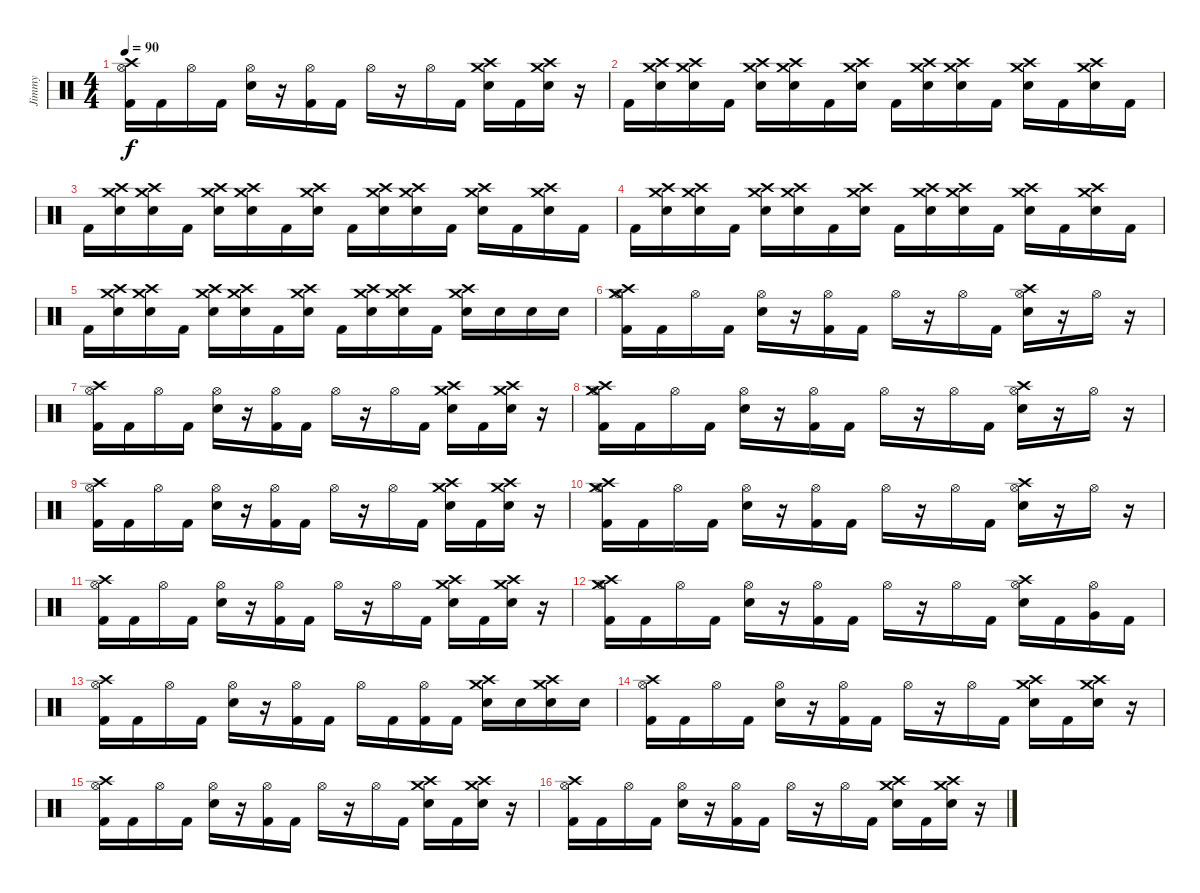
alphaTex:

\track ("Jimmy" "Jimmy") {instrument percussion}
\staff {score}
\articulation defaults
\ts (4 4)
\tempo 90
\clef neutral
\ks c
("Kick (hit) 2" "Hi-Hat (open)" "Crash high (hit)").16{dy f} "Kick (hit) 2".16 "Hi-Hat (open)".16 "Kick (hit) 2".16 ("Electric Snare (hit)" "Hi-Hat (open)").16 r.16 ("Kick (hit) 2" "Hi-Hat (open)").16 "Kick (hit) 2".16 "Hi-Hat (open)".16 r.16 "Hi-Hat (open)".16 "Kick (hit) 2".16 ("Electric Snare (hit)" "Crash high (hit)" "Crash medium (hit)").16 "Kick (hit) 2".16 ("Electric Snare (hit)" "Crash high (hit)" "Crash medium (hit)").16 r.16 |
"Kick (hit) 2".16 ("Electric Snare (hit)" "Crash high (hit)" "Crash medium (hit)").16 ("Electric Snare (hit)" "Crash high (hit)" "Crash medium (hit)").16 "Kick (hit) 2".16 ("Electric Snare (hit)" "Crash high (hit)" "Crash medium (hit)").16 ("Electric Snare (hit)" "Crash high (hit)" "Crash medium (hit)").16 "Kick (hit) 2".16 ("Electric Snare (hit)" "Crash high (hit)" "Crash medium (hit)").16 "Kick (hit) 2".16 ("Electric Snare (hit)" "Crash high (hit)" "Crash medium (hit)").16 ("Electric Snare (hit)" "Crash high (hit)" "Crash medium (hit)").16 "Kick (hit) 2".16 ("Electric Snare (hit)" "Crash high (hit)" "Crash medium (hit)").16 "Kick (hit) 2".16 ("Electric Snare (hit)" "Crash high (hit)" "Crash medium (hit)").16 "Kick (hit) 2".16 |
"Kick (hit) 2".16 ("Electric Snare (hit)" "Crash high (hit)" "Crash medium (hit)").16 ("Electric Snare (hit)" "Crash high (hit)" "Crash medium (hit)").16 "Kick (hit) 2".16 ("Electric Snare (hit)" "Crash high (hit)" "Crash medium (hit)").16 ("Electric Snare (hit)" "Crash high (hit)" "Crash medium (hit)").16 "Kick (hit) 2".16 ("Electric Snare (hit)" "Crash high (hit)" "Crash medium (hit)").16 "Kick (hit) 2".16 ("Electric Snare (hit)" "Crash high (hit)" "Crash medium (hit)").16 ("Electric Snare (hit)" "Crash high (hit)" "Crash medium (hit)").16 "Kick (hit) 2".16 ("Electric Snare (hit)" "Crash high (hit)" "Crash medium (hit)").16 "Kick (hit) 2".16 ("Electric Snare (hit)" "Crash high (hit)" "Crash medium (hit)").16 "Kick (hit) 2".16 |
"Kick (hit) 2".16 ("Electric Snare (hit)" "Crash high (hit)" "Crash medium (hit)").16 ("Electric Snare (hit)" "Crash high (hit)" "Crash medium (hit)").16 "Kick (hit) 2".16 ("Electric Snare (hit)" "Crash high (hit)" "Crash medium (hit)").16 ("Electric Snare (hit)" "Crash high (hit)" "Crash medium (hit)").16 "Kick (hit) 2".16 ("Electric Snare (hit)" "Crash high (hit)" "Crash medium (hit)").16 "Kick (hit) 2".16 ("Electric Snare (hit)" "Crash high (hit)" "Crash medium (hit)").16 ("Electric Snare (hit)" "Crash high (hit)" "Crash medium (hit)").16 "Kick (hit) 2".16 ("Electric Snare (hit)" "Crash high (hit)" "Crash medium (hit)").16 "Kick (hit) 2".16 ("Electric Snare (hit)" "Crash high (hit)" "Crash medium (hit)").16 "Kick (hit) 2".16 |
"Kick (hit) 2".16 ("Electric Snare (hit)" "Crash high (hit)" "Crash medium (hit)").16 ("Electric Snare (hit)" "Crash high (hit)" "Crash medium (hit)").16 "Kick (hit) 2".16 ("Electric Snare (hit)" "Crash high (hit)" "Crash medium (hit)").16 ("Electric Snare (hit)" "Crash high (hit)" "Crash medium (hit)").16 "Kick (hit) 2".16 ("Electric Snare (hit)" "Crash high (hit)" "Crash medium (hit)").16 "Kick (hit) 2".16 ("Electric Snare (hit)" "Crash high (hit)" "Crash medium (hit)").16 ("Electric Snare (hit)" "Crash high (hit)" "Crash medium (hit)").16 "Kick (hit) 2".16 ("Electric Snare (hit)" "Crash high (hit)" "Crash medium (hit)").16 "Electric Snare (hit)".16 "Electric Snare (hit)".16 "Electric Snare (hit)".16 |
("Kick (hit) 2" "Hi-Hat (open)" "Crash high (hit)" "Crash medium (hit)").16 "Kick (hit) 2".16 "Hi-Hat (open)".16 "Kick (hit) 2".16 ("Electric Snare (hit)" "Hi-Hat (open)").16 r.16 ("Kick (hit) 2" "Hi-Hat (open)").16 "Kick (hit) 2".16 "Hi-Hat (open)".16 r.16 "Hi-Hat (open)".16 "Kick (hit) 2".16 ("Electric Snare (hit)" "Hi-Hat (open)" "Crash high (hit)").16 r.16 "Hi-Hat (open)".16 r.16 |
("Kick (hit) 2" "Hi-Hat (open)" "Crash high (hit)").16 "Kick (hit) 2".16 "Hi-Hat (open)".16 "Kick (hit) 2".16 ("Electric Snare (hit)" "Hi-Hat (open)").16 r.16 ("Kick (hit) 2" "Hi-Hat (open)").16 "Kick (hit) 2".16 "Hi-Hat (open)".16 r.16 "Hi-Hat (open)".16 "Kick (hit) 2".16 ("Electric Snare (hit)" "Crash high (hit)" "Crash medium (hit)").16 "Kick (hit) 2".16 ("Electric Snare (hit)" "Crash high (hit)" "Crash medium (hit)").16 r.16 |
("Kick (hit) 2" "Hi-Hat (open)" "Crash high (hit)" "Crash medium (hit)").16 "Kick (hit) 2".16 "Hi-Hat (open)".16 "Kick (hit) 2".16 ("Electric Snare (hit)" "Hi-Hat (open)").16 r.16 ("Kick (hit) 2" "Hi-Hat (open)").16 "Kick (hit) 2".16 "Hi-Hat (open)".16 r.16 "Hi-Hat (open)".16 "Kick (hit) 2".16 ("Electric Snare (hit)" "Hi-Hat (open)" "Crash high (hit)").16 r.16 "Hi-Hat (open)".16 r.16 |
("Kick (hit) 2" "Hi-Hat (open)" "Crash high (hit)").16 "Kick (hit) 2".16 "Hi-Hat (open)".16 "Kick (hit) 2".16 ("Electric Snare (hit)" "Hi-Hat (open)").16 r.16 ("Kick (hit) 2" "Hi-Hat (open)").16 "Kick (hit) 2".16 "Hi-Hat (open)".16 r.16 "Hi-Hat (open)".16 "Kick (hit) 2".16 ("Electric Snare (hit)" "Crash high (hit)" "Crash medium (hit)").16 "Kick (hit) 2".16 ("Electric Snare (hit)" "Crash high (hit)" "Crash medium (hit)").16 r.16 |
("Kick (hit) 2" "Hi-Hat (open)" "Crash high (hit)" "Crash medium (hit)").16 "Kick (hit) 2".16 "Hi-Hat (open)".16 "Kick (hit) 2".16 ("Electric Snare (hit)" "Hi-Hat (open)").16 r.16 ("Kick (hit) 2" "Hi-Hat (open)").16 "Kick (hit) 2".16 "Hi-Hat (open)".16 r.16 "Hi-Hat (open)".16 "Kick (hit) 2".16 ("Electric Snare (hit)" "Hi-Hat (open)" "Crash high (hit)").16 r.16 "Hi-Hat (open)".16 r.16 |
("Kick (hit) 2" "Hi-Hat (open)" "Crash high (hit)").16 "Kick (hit) 2".16 "Hi-Hat (open)".16 "Kick (hit) 2".16 ("Electric Snare (hit)" "Hi-Hat (open)").16 r.16 ("Kick (hit) 2" "Hi-Hat (open)").16 "Kick (hit) 2".16 "Hi-Hat (open)".16 r.16 "Hi-Hat (open)".16 "Kick (hit) 2".16 ("Electric Snare (hit)" "Crash high (hit)" "Crash medium (hit)").16 "Kick (hit) 2".16 ("Electric Snare (hit)" "Crash high (hit)" "Crash medium (hit)").16 r.16 |
("Kick (hit) 2" "Hi-Hat (open)" "Crash high (hit)" "Crash medium (hit)").16 "Kick (hit) 2".16 "Hi-Hat (open)".16 "Kick (hit) 2".16 ("Electric Snare (hit)" "Hi-Hat (open)").16 r.16 ("Kick (hit) 2" "Hi-Hat (open)").16 "Kick (hit) 2".16 "Hi-Hat (open)".16 r.16 "Hi-Hat (open)".16 "Kick (hit) 2".16 ("Electric Snare (hit)" "Hi-Hat (open)" "Crash high (hit)").16 "Kick (hit) 2".16 ("Very Low Tom (hit)" "Hi-Hat (open)").16 "Kick (hit) 2".16 |
("Kick (hit) 2" "Hi-Hat (open)" "Crash high (hit)").16 "Kick (hit) 2".16 "Hi-Hat (open)".16 "Kick (hit) 2".16 ("Electric Snare (hit)" "Hi-Hat (open)").16 r.16 ("Kick (hit) 2" "Hi-Hat (open)").16 "Kick (hit) 2".16 "Hi-Hat (open)".16 "Kick (hit) 2".16 ("Kick (hit) 2" "Hi-Hat (open)").16 "Kick (hit) 2".16 ("Electric Snare (hit)" "Crash high (hit)" "Crash medium (hit)").16 "Electric Snare (hit)".16 ("Electric Snare (hit)" "Crash high (hit)" "Crash medium (hit)").16 "Electric Snare (hit)".16 |
("Kick (hit) 2" "Hi-Hat (open)" "Crash high (hit)").16 "Kick (hit) 2".16 "Hi-Hat (open)".16 "Kick (hit) 2".16 ("Electric Snare (hit)" "Hi-Hat (open)").16 r.16 ("Kick (hit) 2" "Hi-Hat (open)").16 "Kick (hit) 2".16 "Hi-Hat (open)".16 r.16 "Hi-Hat (open)".16 "Kick (hit) 2".16 ("Electric Snare (hit)" "Crash high (hit)" "Crash medium (hit)").16 "Kick (hit) 2".16 ("Electric Snare (hit)" "Crash high (hit)" "Crash medium (hit)").16 r.16 |
("Kick (hit) 2" "Hi-Hat (open)" "Crash high (hit)").16 "Kick (hit) 2".16 "Hi-Hat (open)".16 "Kick (hit) 2".16 ("Electric Snare (hit)" "Hi-Hat (open)").16 r.16 ("Kick (hit) 2" "Hi-Hat (open)").16 "Kick (hit) 2".16 "Hi-Hat (open)".16 r.16 "Hi-Hat (open)".16 "Kick (hit) 2".16 ("Electric Snare (hit)" "Crash high (hit)" "Crash medium (hit)").16 "Kick (hit) 2".16 ("Electric Snare (hit)" "Crash high (hit)" "Crash medium (hit)").16 r.16 |
("Kick (hit) 2" "Hi-Hat (open)" "Crash high (hit)").16 "Kick (hit) 2".16 "Hi-Hat (open)".16 "Kick (hit) 2".16 ("Electric Snare (hit)" "Hi-Hat (open)").16 r.16 ("Kick (hit) 2" "Hi-Hat (open)").16 "Kick (hit) 2".16 "Hi-Hat (open)".16 r.16 "Hi-Hat (open)".16 "Kick (hit) 2".16 ("Electric Snare (hit)" "Crash high (hit)" "Crash medium (hit)").16 "Kick (hit) 2".16 ("Electric Snare (hit)" "Crash high (hit)" "Crash medium (hit)").16 r.16
